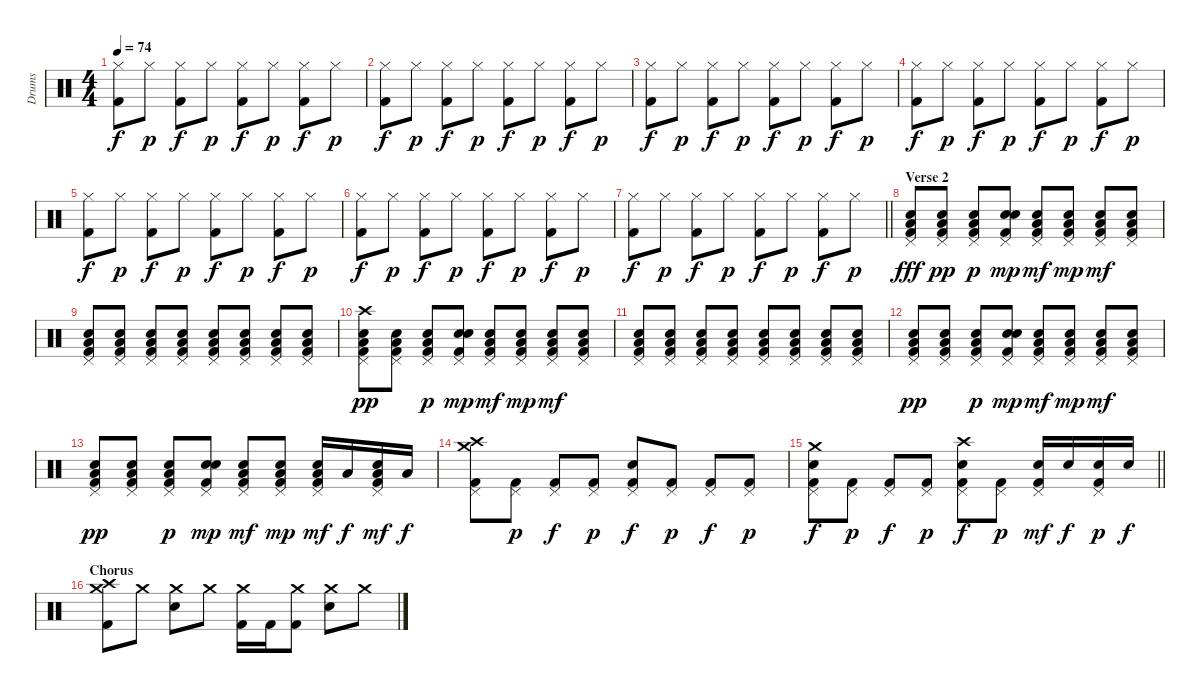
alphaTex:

\track ("Drums" "Drums") {instrument percussion}
\staff {score}
\articulation defaults
\ts (4 4)
\tempo 74
\clef neutral
\ks c
("Hi-Hat (closed)" "Kick (hit) 2").8{dy f} "Hi-Hat (closed)".8{dy p} ("Hi-Hat (closed)" "Kick (hit) 2").8{dy f} "Hi-Hat (closed)".8{dy p} ("Hi-Hat (closed)" "Kick (hit) 2").8{dy f} "Hi-Hat (closed)".8{dy p} ("Hi-Hat (closed)" "Kick (hit) 2").8{dy f} "Hi-Hat (closed)".8{dy p} |
("Hi-Hat (closed)" "Kick (hit) 2").8{dy f} "Hi-Hat (closed)".8{dy p} ("Hi-Hat (closed)" "Kick (hit) 2").8{dy f} "Hi-Hat (closed)".8{dy p} ("Hi-Hat (closed)" "Kick (hit) 2").8{dy f} "Hi-Hat (closed)".8{dy p} ("Hi-Hat (closed)" "Kick (hit) 2").8{dy f} "Hi-Hat (closed)".8{dy p} |
("Hi-Hat (closed)" "Kick (hit) 2").8{dy f} "Hi-Hat (closed)".8{dy p} ("Hi-Hat (closed)" "Kick (hit) 2").8{dy f} "Hi-Hat (closed)".8{dy p} ("Hi-Hat (closed)" "Kick (hit) 2").8{dy f} "Hi-Hat (closed)".8{dy p} ("Hi-Hat (closed)" "Kick (hit) 2").8{dy f} "Hi-Hat (closed)".8{dy p} |
("Hi-Hat (closed)" "Kick (hit) 2").8{dy f} "Hi-Hat (closed)".8{dy p} ("Hi-Hat (closed)" "Kick (hit) 2").8{dy f} "Hi-Hat (closed)".8{dy p} ("Hi-Hat (closed)" "Kick (hit) 2").8{dy f} "Hi-Hat (closed)".8{dy p} ("Hi-Hat (closed)" "Kick (hit) 2").8{dy f} "Hi-Hat (closed)".8{dy p} |
("Hi-Hat (closed)" "Kick (hit) 2").8{dy f} "Hi-Hat (closed)".8{dy p} ("Hi-Hat (closed)" "Kick (hit) 2").8{dy f} "Hi-Hat (closed)".8{dy p} ("Hi-Hat (closed)" "Kick (hit) 2").8{dy f} "Hi-Hat (closed)".8{dy p} ("Hi-Hat (closed)" "Kick (hit) 2").8{dy f} "Hi-Hat (closed)".8{dy p} |
("Hi-Hat (closed)" "Kick (hit) 2").8{dy f} "Hi-Hat (closed)".8{dy p} ("Hi-Hat (closed)" "Kick (hit) 2").8{dy f} "Hi-Hat (closed)".8{dy p} ("Hi-Hat (closed)" "Kick (hit) 2").8{dy f} "Hi-Hat (closed)".8{dy p} ("Hi-Hat (closed)" "Kick (hit) 2").8{dy f} "Hi-Hat (closed)".8{dy p} |
\barLineRight lightlight
("Hi-Hat (closed)" "Kick (hit) 2").8{dy f} "Hi-Hat (closed)".8{dy p} ("Hi-Hat (closed)" "Kick (hit) 2").8{dy f} "Hi-Hat (closed)".8{dy p} ("Hi-Hat (closed)" "Kick (hit) 2").8{dy f} "Hi-Hat (closed)".8{dy p} ("Hi-Hat (closed)" "Kick (hit) 2").8{dy f} "Hi-Hat (closed)".8{dy p} |
\section ("" "Verse 2")
("Pedal Hi-Hat (hit)" "Low Floor Tom (hit)" "Snare (hit) 2" "Kick (hit) 2").8{dy fff} ("Pedal Hi-Hat (hit)" "Low Floor Tom (hit)" "Snare (hit) 2" "Kick (hit) 2").8{dy pp} ("Pedal Hi-Hat (hit)" "Low Floor Tom (hit)" "Snare (hit) 2" "Kick (hit) 2").8{dy p} ("Pedal Hi-Hat (hit)" "Snare (hit)" "Snare (hit) 2" "Kick (hit) 2").8{dy mp} ("Pedal Hi-Hat (hit)" "Low Floor Tom (hit)" "Snare (hit) 2" "Kick (hit) 2").8{dy mf} ("Pedal Hi-Hat (hit)" "Low Floor Tom (hit)" "Snare (hit) 2" "Kick (hit) 2").8{dy mp} ("Pedal Hi-Hat (hit)" "Low Floor Tom (hit)" "Snare (hit) 2" "Kick (hit) 2").8{dy mf} ("Pedal Hi-Hat (hit)" "Low Floor Tom (hit)" "Snare (hit) 2" "Kick (hit) 2").8 |
("Pedal Hi-Hat (hit)" "Low Floor Tom (hit)" "Snare (hit) 2" "Kick (hit) 2").8 ("Pedal Hi-Hat (hit)" "Low Floor Tom (hit)" "Snare (hit) 2" "Kick (hit) 2").8 ("Pedal Hi-Hat (hit)" "Low Floor Tom (hit)" "Snare (hit) 2" "Kick (hit) 2").8 ("Pedal Hi-Hat (hit)" "Low Floor Tom (hit)" "Snare (hit) 2" "Kick (hit) 2").8 ("Pedal Hi-Hat (hit)" "Low Floor Tom (hit)" "Snare (hit) 2" "Kick (hit) 2").8 ("Pedal Hi-Hat (hit)" "Low Floor Tom (hit)" "Snare (hit) 2" "Kick (hit) 2").8 ("Pedal Hi-Hat (hit)" "Low Floor Tom (hit)" "Snare (hit) 2" "Kick (hit) 2").8 ("Pedal Hi-Hat (hit)" "Low Floor Tom (hit)" "Snare (hit) 2" "Kick (hit) 2").8 |
("Crash high (hit)" "Pedal Hi-Hat (hit)" "Low Floor Tom (hit)" "Snare (hit) 2" "Kick (hit) 2").8{dy pp} ("Pedal Hi-Hat (hit)" "Low Floor Tom (hit)" "Snare (hit) 2" "Kick (hit) 2").8 ("Pedal Hi-Hat (hit)" "Low Floor Tom (hit)" "Snare (hit) 2" "Kick (hit) 2").8{dy p} ("Pedal Hi-Hat (hit)" "Snare (hit)" "Snare (hit) 2" "Kick (hit) 2").8{dy mp} ("Pedal Hi-Hat (hit)" "Low Floor Tom (hit)" "Snare (hit) 2" "Kick (hit) 2").8{dy mf} ("Pedal Hi-Hat (hit)" "Low Floor Tom (hit)" "Snare (hit) 2" "Kick (hit) 2").8{dy mp} ("Pedal Hi-Hat (hit)" "Low Floor Tom (hit)" "Snare (hit) 2" "Kick (hit) 2").8{dy mf} ("Pedal Hi-Hat (hit)" "Low Floor Tom (hit)" "Snare (hit) 2" "Kick (hit) 2").8 |
("Pedal Hi-Hat (hit)" "Low Floor Tom (hit)" "Snare (hit) 2" "Kick (hit) 2").8 ("Pedal Hi-Hat (hit)" "Low Floor Tom (hit)" "Snare (hit) 2" "Kick (hit) 2").8 ("Pedal Hi-Hat (hit)" "Low Floor Tom (hit)" "Snare (hit) 2" "Kick (hit) 2").8 ("Pedal Hi-Hat (hit)" "Low Floor Tom (hit)" "Snare (hit) 2" "Kick (hit) 2").8 ("Pedal Hi-Hat (hit)" "Low Floor Tom (hit)" "Snare (hit) 2" "Kick (hit) 2").8 ("Pedal Hi-Hat (hit)" "Low Floor Tom (hit)" "Snare (hit) 2" "Kick (hit) 2").8 ("Pedal Hi-Hat (hit)" "Low Floor Tom (hit)" "Snare (hit) 2" "Kick (hit) 2").8 ("Pedal Hi-Hat (hit)" "Low Floor Tom (hit)" "Snare (hit) 2" "Kick (hit) 2").8 |
("Pedal Hi-Hat (hit)" "Low Floor Tom (hit)" "Snare (hit) 2" "Kick (hit) 2").8{dy pp} ("Pedal Hi-Hat (hit)" "Low Floor Tom (hit)" "Snare (hit) 2" "Kick (hit) 2").8 ("Pedal Hi-Hat (hit)" "Low Floor Tom (hit)" "Snare (hit) 2" "Kick (hit) 2").8{dy p} ("Pedal Hi-Hat (hit)" "Snare (hit)" "Snare (hit) 2" "Kick (hit) 2").8{dy mp} ("Pedal Hi-Hat (hit)" "Low Floor Tom (hit)" "Snare (hit) 2" "Kick (hit) 2").8{dy mf} ("Pedal Hi-Hat (hit)" "Low Floor Tom (hit)" "Snare (hit) 2" "Kick (hit) 2").8{dy mp} ("Pedal Hi-Hat (hit)" "Low Floor Tom (hit)" "Snare (hit) 2" "Kick (hit) 2").8{dy mf} ("Pedal Hi-Hat (hit)" "Low Floor Tom (hit)" "Snare (hit) 2" "Kick (hit) 2").8 |
("Pedal Hi-Hat (hit)" "Low Floor Tom (hit)" "Snare (hit) 2" "Kick (hit) 2").8{dy pp} ("Pedal Hi-Hat (hit)" "Low Floor Tom (hit)" "Snare (hit) 2" "Kick (hit) 2").8 ("Pedal Hi-Hat (hit)" "Low Floor Tom (hit)" "Snare (hit) 2" "Kick (hit) 2").8{dy p} ("Pedal Hi-Hat (hit)" "Snare (hit)" "Snare (hit) 2" "Kick (hit) 2").8{dy mp} ("Pedal Hi-Hat (hit)" "Low Floor Tom (hit)" "Snare (hit) 2" "Kick (hit) 2").8{dy mf} ("Pedal Hi-Hat (hit)" "Low Tom (hit)" "Snare (hit) 2" "Kick (hit) 2").8{dy mp} ("Pedal Hi-Hat (hit)" "Low Tom (hit)" "Snare (hit) 2" "Kick (hit) 2").16{dy mf} "Low Tom (hit)".16{dy f} ("Pedal Hi-Hat (hit)" "Low Tom (hit)" "Snare (hit) 2" "Kick (hit) 2").16{dy mf} "Low Tom (hit)".16{dy f} |
("Crash medium (hit)" "Crash high (hit)" "Pedal Hi-Hat (hit)" "Kick (hit) 2").8 ("Pedal Hi-Hat (hit)" "Kick (hit) 2").8{dy p} ("Pedal Hi-Hat (hit)" "Kick (hit) 2").8{dy f} ("Pedal Hi-Hat (hit)" "Kick (hit) 2").8{dy p} ("Pedal Hi-Hat (hit)" "Snare (hit) 2" "Kick (hit) 2").8{dy f} ("Pedal Hi-Hat (hit)" "Kick (hit) 2").8{dy p} ("Pedal Hi-Hat (hit)" "Kick (hit) 2").8{dy f} ("Pedal Hi-Hat (hit)" "Kick (hit) 2").8{dy p} |
\barLineRight lightlight
("Crash medium (hit)" "Pedal Hi-Hat (hit)" "Snare (hit) 2" "Kick (hit) 2").8{dy f} ("Pedal Hi-Hat (hit)" "Kick (hit) 2").8{dy p} ("Pedal Hi-Hat (hit)" "Kick (hit) 2").8{dy f} ("Pedal Hi-Hat (hit)" "Kick (hit) 2").8{dy p} ("Crash high (hit)" "Pedal Hi-Hat (hit)" "Snare (hit) 2" "Kick (hit) 2").8{dy f} ("Pedal Hi-Hat (hit)" "Kick (hit) 2").8{dy p} ("Pedal Hi-Hat (hit)" "Snare (hit) 2" "Kick (hit) 2").16{dy mf} "Snare (hit) 2".16{dy f} ("Pedal Hi-Hat (hit)" "Snare (hit) 2" "Kick (hit) 2").16{dy p} "Snare (hit) 2".16{dy f} |
\section ("" "Chorus")
("Crash high (hit)" "Crash medium (hit)" "Kick (hit) 2").8 "Crash medium (hit)".8 ("Crash medium (hit)" "Snare (hit) 2").8 "Crash medium (hit)".8 ("Crash medium (hit)" "Kick (hit) 2").16 "Kick (hit) 2".16 ("Crash medium (hit)" "Kick (hit) 2").8 ("Crash medium (hit)" "Snare (hit) 2").8 "Crash medium (hit)".8
